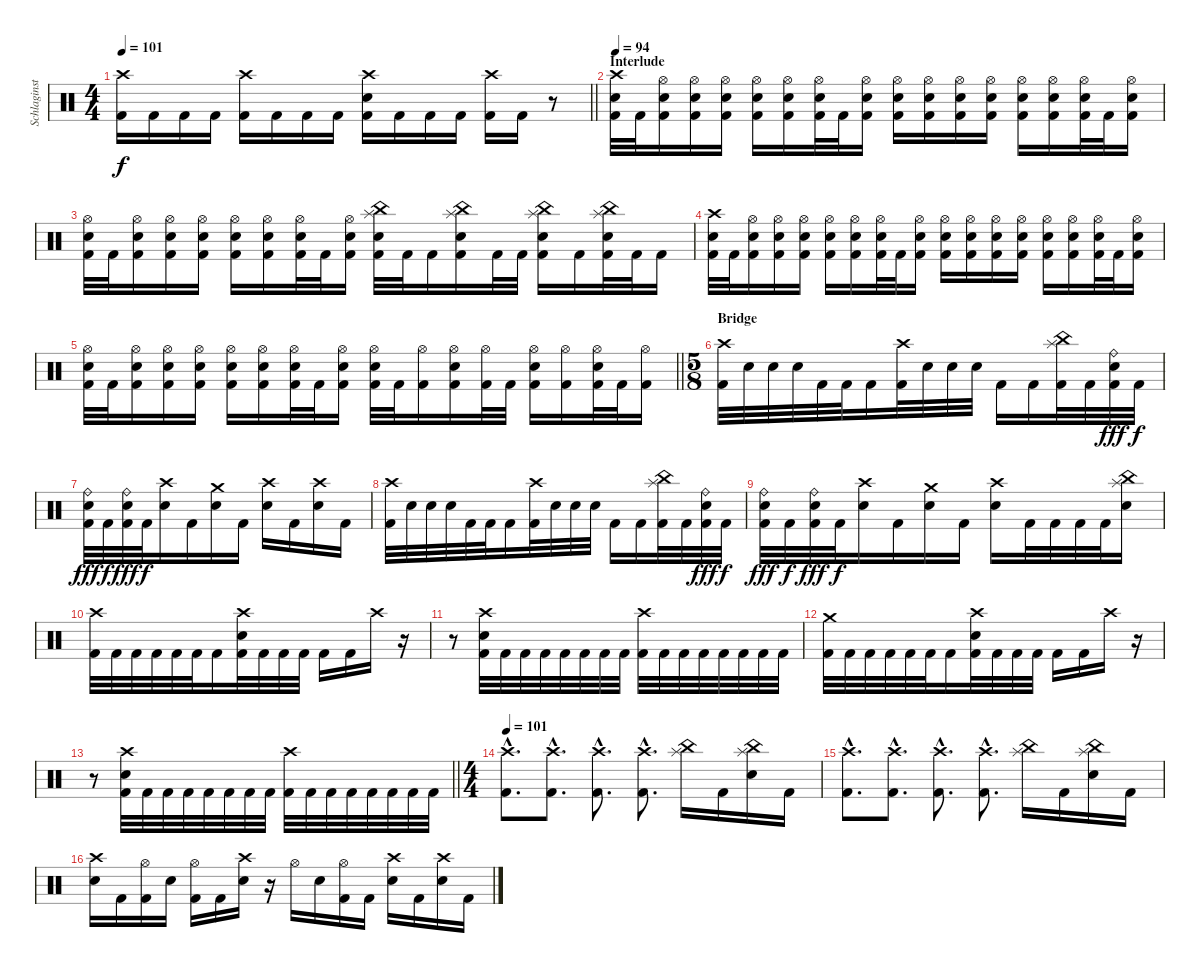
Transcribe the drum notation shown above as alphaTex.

\track ("Schlaginstrumente - Auswahl" "Schlaginst") {instrument percussion}
\staff {score}
\articulation defaults
\ts (4 4)
\tempo 101
\clef neutral
\barLineRight lightlight
\ks c
("Crash high (hit)" "Kick (hit) 2").16{dy f} "Kick (hit) 2".16 "Kick (hit) 2".16 "Kick (hit) 2".16 ("Crash high (hit)" "Kick (hit) 2").16 "Kick (hit) 2".16 "Kick (hit) 2".16 "Kick (hit) 2".16 ("Crash high (hit)" "Snare (hit) 2" "Kick (hit) 2").16 "Kick (hit) 2".16 "Kick (hit) 2".16 "Kick (hit) 2".16 ("Crash high (hit)" "Kick (hit) 2").16 "Kick (hit) 2".16 r.8 |
\section ("" "Interlude")
\tempo 94
("Crash high (hit)" "Snare (hit) 2" "Kick (hit) 2").32 "Kick (hit) 2".32 ("Hi-Hat (open)" "Snare (hit) 2" "Kick (hit) 2").16 ("Hi-Hat (open)" "Snare (hit) 2" "Kick (hit) 2").16 ("Hi-Hat (open)" "Snare (hit) 2" "Kick (hit) 2").16 ("Hi-Hat (open)" "Snare (hit) 2" "Kick (hit) 2").16 ("Hi-Hat (open)" "Snare (hit) 2" "Kick (hit) 2").16 ("Hi-Hat (open)" "Snare (hit) 2" "Kick (hit) 2").32 "Kick (hit) 2".32 ("Hi-Hat (open)" "Snare (hit) 2" "Kick (hit) 2").16 ("Hi-Hat (open)" "Snare (hit) 2" "Kick (hit) 2").16 ("Hi-Hat (open)" "Snare (hit) 2" "Kick (hit) 2").16 ("Hi-Hat (open)" "Snare (hit) 2" "Kick (hit) 2").16 ("Hi-Hat (open)" "Snare (hit) 2" "Kick (hit) 2").16 ("Hi-Hat (open)" "Snare (hit) 2" "Kick (hit) 2").16 ("Hi-Hat (open)" "Snare (hit) 2" "Kick (hit) 2").16 ("Hi-Hat (open)" "Snare (hit) 2" "Kick (hit) 2").32 "Kick (hit) 2".32 ("Hi-Hat (open)" "Snare (hit) 2" "Kick (hit) 2").16 |
("Hi-Hat (open)" "Snare (hit) 2" "Kick (hit) 2").32 "Kick (hit) 2".32 ("Hi-Hat (open)" "Snare (hit) 2" "Kick (hit) 2").16 ("Hi-Hat (open)" "Snare (hit) 2" "Kick (hit) 2").16 ("Hi-Hat (open)" "Snare (hit) 2" "Kick (hit) 2").16 ("Hi-Hat (open)" "Snare (hit) 2" "Kick (hit) 2").16 ("Hi-Hat (open)" "Snare (hit) 2" "Kick (hit) 2").16 ("Hi-Hat (open)" "Snare (hit) 2" "Kick (hit) 2").32 "Kick (hit) 2".32 ("Hi-Hat (open)" "Snare (hit) 2" "Kick (hit) 2").16 ("China (hit)" "Splash (hit)" "Snare (hit) 2" "Kick (hit) 2").32 "Kick (hit) 2".32 "Kick (hit) 2".16 ("China (hit)" "Splash (hit)" "Snare (hit) 2" "Kick (hit) 2").16 "Kick (hit) 2".32 "Kick (hit) 2".32 ("China (hit)" "Splash (hit)" "Snare (hit) 2" "Kick (hit) 2").16 "Kick (hit) 2".16 ("China (hit)" "Splash (hit)" "Snare (hit) 2" "Kick (hit) 2").32 "Kick (hit) 2".32 "Kick (hit) 2".16 |
("Crash high (hit)" "Snare (hit) 2" "Kick (hit) 2").32 "Kick (hit) 2".32 ("Hi-Hat (open)" "Snare (hit) 2" "Kick (hit) 2").16 ("Hi-Hat (open)" "Snare (hit) 2" "Kick (hit) 2").16 ("Hi-Hat (open)" "Snare (hit) 2" "Kick (hit) 2").16 ("Hi-Hat (open)" "Snare (hit) 2" "Kick (hit) 2").16 ("Hi-Hat (open)" "Snare (hit) 2" "Kick (hit) 2").16 ("Hi-Hat (open)" "Snare (hit) 2" "Kick (hit) 2").32 "Kick (hit) 2".32 ("Hi-Hat (open)" "Snare (hit) 2" "Kick (hit) 2").16 ("Hi-Hat (open)" "Snare (hit) 2" "Kick (hit) 2").16 ("Hi-Hat (open)" "Snare (hit) 2" "Kick (hit) 2").16 ("Hi-Hat (open)" "Snare (hit) 2" "Kick (hit) 2").16 ("Hi-Hat (open)" "Snare (hit) 2" "Kick (hit) 2").16 ("Hi-Hat (open)" "Snare (hit) 2" "Kick (hit) 2").16 ("Hi-Hat (open)" "Snare (hit) 2" "Kick (hit) 2").16 ("Hi-Hat (open)" "Snare (hit) 2" "Kick (hit) 2").32 "Kick (hit) 2".32 ("Hi-Hat (open)" "Snare (hit) 2" "Kick (hit) 2").16 |
\barLineRight lightlight
("Hi-Hat (open)" "Snare (hit) 2" "Kick (hit) 2").32 "Kick (hit) 2".32 ("Hi-Hat (open)" "Snare (hit) 2" "Kick (hit) 2").16 ("Hi-Hat (open)" "Snare (hit) 2" "Kick (hit) 2").16 ("Hi-Hat (open)" "Snare (hit) 2" "Kick (hit) 2").16 ("Hi-Hat (open)" "Snare (hit) 2" "Kick (hit) 2").16 ("Hi-Hat (open)" "Snare (hit) 2" "Kick (hit) 2").16 ("Hi-Hat (open)" "Snare (hit) 2" "Kick (hit) 2").32 "Kick (hit) 2".32 ("Hi-Hat (open)" "Snare (hit) 2" "Kick (hit) 2").16 ("Hi-Hat (open)" "Snare (hit) 2" "Kick (hit) 2").32 "Kick (hit) 2".32 ("Hi-Hat (open)" "Kick (hit) 2").16 ("Hi-Hat (open)" "Snare (hit) 2" "Kick (hit) 2").16 ("Hi-Hat (open)" "Kick (hit) 2").32 "Kick (hit) 2".32 ("Hi-Hat (open)" "Snare (hit) 2" "Kick (hit) 2").16 ("Hi-Hat (open)" "Kick (hit) 2").16 ("Hi-Hat (open)" "Snare (hit) 2" "Kick (hit) 2").32 "Kick (hit) 2".32 ("Hi-Hat (open)" "Kick (hit) 2").16 |
\ts (5 8)
\section ("" "Bridge")
("Crash high (hit)" "Kick (hit) 2").32 "Snare (hit) 2".32 "Snare (hit) 2".32 "Snare (hit) 2".32 "Kick (hit) 2".32 "Kick (hit) 2".32 "Kick (hit) 2".16 ("Crash high (hit)" "Kick (hit) 2").32 "Snare (hit) 2".32 "Snare (hit) 2".32 "Snare (hit) 2".32 "Kick (hit) 2".16 "Kick (hit) 2".16 ("China (hit)" "Splash (hit)" "Kick (hit) 2").32 "Kick (hit) 2".32 ("Ride (bell)" "Snare (hit) 2" "Kick (hit) 2").32{dy fff} "Kick (hit) 2".32{dy f} |
("Ride (bell)" "Snare (hit) 2" "Kick (hit) 2").32{dy fff} "Kick (hit) 2".32{dy f} ("Ride (bell)" "Snare (hit) 2" "Kick (hit) 2").32{dy fff} "Kick (hit) 2".32{dy f} ("Crash high (hit)" "Snare (hit) 2").16 "Kick (hit) 2".16 ("Crash medium (hit)" "Snare (hit) 2").16 "Kick (hit) 2".16 ("Crash high (hit)" "Snare (hit) 2").16 "Kick (hit) 2".16 ("Crash high (hit)" "Snare (hit) 2").16 "Kick (hit) 2".16 |
("Crash high (hit)" "Kick (hit) 2").32 "Snare (hit) 2".32 "Snare (hit) 2".32 "Snare (hit) 2".32 "Kick (hit) 2".32 "Kick (hit) 2".32 "Kick (hit) 2".16 ("Crash high (hit)" "Kick (hit) 2").32 "Snare (hit) 2".32 "Snare (hit) 2".32 "Snare (hit) 2".32 "Kick (hit) 2".16 "Kick (hit) 2".16 ("China (hit)" "Splash (hit)" "Kick (hit) 2").32 "Kick (hit) 2".32 ("Ride (bell)" "Snare (hit) 2" "Kick (hit) 2").32{dy fff} "Kick (hit) 2".32{dy f} |
("Ride (bell)" "Snare (hit) 2" "Kick (hit) 2").32{dy fff} "Kick (hit) 2".32{dy f} ("Ride (bell)" "Snare (hit) 2" "Kick (hit) 2").32{dy fff} "Kick (hit) 2".32{dy f} ("Crash high (hit)" "Snare (hit) 2").16 "Kick (hit) 2".16 ("Crash medium (hit)" "Snare (hit) 2").16 "Kick (hit) 2".16 ("Crash high (hit)" "Snare (hit) 2").16 "Kick (hit) 2".32 "Kick (hit) 2".32 "Kick (hit) 2".32 "Kick (hit) 2".32 ("China (hit)" "Splash (hit)" "Snare (hit) 2").16 |
("Crash high (hit)" "Kick (hit) 2").32 "Kick (hit) 2".32 "Kick (hit) 2".32 "Kick (hit) 2".32 "Kick (hit) 2".32 "Kick (hit) 2".32 "Kick (hit) 2".16 ("Crash high (hit)" "Snare (hit) 2" "Kick (hit) 2").32 "Kick (hit) 2".32 "Kick (hit) 2".32 "Kick (hit) 2".32 "Kick (hit) 2".16 "Kick (hit) 2".16 "Crash high (hit)".16 r.16 |
r.8 ("Crash high (hit)" "Snare (hit) 2" "Kick (hit) 2").32 "Kick (hit) 2".32 "Kick (hit) 2".32 "Kick (hit) 2".32 "Kick (hit) 2".32 "Kick (hit) 2".32 "Kick (hit) 2".32 "Kick (hit) 2".32 ("Crash high (hit)" "Kick (hit) 2").32 "Kick (hit) 2".32 "Kick (hit) 2".32 "Kick (hit) 2".32 "Kick (hit) 2".32 "Kick (hit) 2".32 "Kick (hit) 2".32 "Kick (hit) 2".32 |
("Crash medium (hit)" "Kick (hit) 2").32 "Kick (hit) 2".32 "Kick (hit) 2".32 "Kick (hit) 2".32 "Kick (hit) 2".32 "Kick (hit) 2".32 "Kick (hit) 2".16 ("Crash high (hit)" "Snare (hit) 2" "Kick (hit) 2").32 "Kick (hit) 2".32 "Kick (hit) 2".32 "Kick (hit) 2".32 "Kick (hit) 2".16 "Kick (hit) 2".16 "Crash high (hit)".16 r.16 |
\barLineRight lightlight
r.8 ("Crash high (hit)" "Snare (hit) 2" "Kick (hit) 2").32 "Kick (hit) 2".32 "Kick (hit) 2".32 "Kick (hit) 2".32 "Kick (hit) 2".32 "Kick (hit) 2".32 "Kick (hit) 2".32 "Kick (hit) 2".32 ("Crash high (hit)" "Kick (hit) 2").32 "Kick (hit) 2".32 "Kick (hit) 2".32 "Kick (hit) 2".32 "Kick (hit) 2".32 "Kick (hit) 2".32 "Kick (hit) 2".32 "Kick (hit) 2".32 |
\ts (4 4)
\tempo 101
("Crash high (hit)"{hac} "Kick (hit) 2"{hac}).8{d} ("Crash high (hit)"{hac} "Kick (hit) 2"{hac}).8{d} ("Crash high (hit)"{hac} "Kick (hit) 2"{hac}).8{d} ("Crash high (hit)"{hac} "Kick (hit) 2"{hac}).8{d} ("China (hit)" "Splash (hit)").16 "Kick (hit) 2".16 ("China (hit)" "Splash (hit)" "Snare (hit) 2").16 "Kick (hit) 2".16 |
("Crash high (hit)"{hac} "Kick (hit) 2"{hac}).8{d} ("Crash high (hit)"{hac} "Kick (hit) 2"{hac}).8{d} ("Crash high (hit)"{hac} "Kick (hit) 2"{hac}).8{d} ("Crash high (hit)"{hac} "Kick (hit) 2"{hac}).8{d} ("China (hit)" "Splash (hit)").16 "Kick (hit) 2".16 ("China (hit)" "Splash (hit)" "Snare (hit) 2").16 "Kick (hit) 2".16 |
("Crash high (hit)" "Snare (hit) 2").16 "Kick (hit) 2".16 ("Hi-Hat (open)" "Kick (hit) 2").16 "Snare (hit) 2".16 ("Hi-Hat (open)" "Kick (hit) 2").16 "Kick (hit) 2".16 ("Crash high (hit)" "Snare (hit) 2").16 r.16 "Hi-Hat (open)".16 "Snare (hit) 2".16 ("Hi-Hat (open)" "Kick (hit) 2").16 "Kick (hit) 2".16 ("Crash high (hit)" "Snare (hit) 2").16 "Kick (hit) 2".16 ("Crash high (hit)" "Snare (hit) 2").16 "Kick (hit) 2".16
